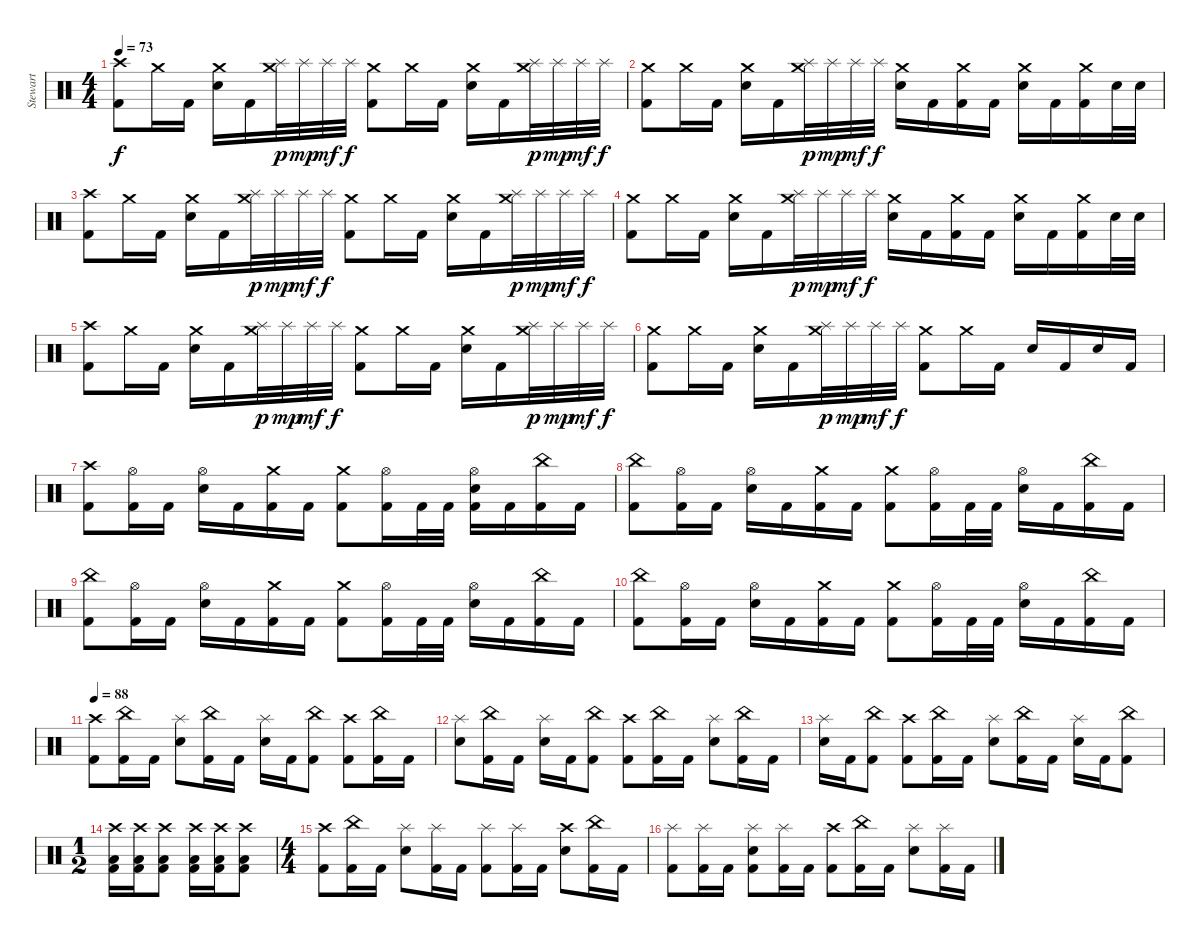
\track ("Stewart" "Stewart") {instrument percussion}
\staff {score}
\articulation defaults
\ts (4 4)
\tempo 73
\clef neutral
\ks c
("Crash high (hit)" "Kick (hit) 2").8{dy f} "Crash medium (hit)".16 "Kick (hit) 2".16 ("Crash medium (hit)" "Electric Snare (hit)").16 "Kick (hit) 2".16 ("Crash medium (hit)" "Splash (hit)").32{dy p} "Splash (hit)".32{dy mp} "Splash (hit)".32{dy mf} "Splash (hit)".32{dy f} ("Crash medium (hit)" "Kick (hit) 2").8 "Crash medium (hit)".16 "Kick (hit) 2".16 ("Crash medium (hit)" "Electric Snare (hit)").16 "Kick (hit) 2".16 ("Crash medium (hit)" "Splash (hit)").32{dy p} "Splash (hit)".32{dy mp} "Splash (hit)".32{dy mf} "Splash (hit)".32{dy f} |
("Crash medium (hit)" "Kick (hit) 2").8 "Crash medium (hit)".16 "Kick (hit) 2".16 ("Crash medium (hit)" "Electric Snare (hit)").16 "Kick (hit) 2".16 ("Crash medium (hit)" "Splash (hit)").32{dy p} "Splash (hit)".32{dy mp} "Splash (hit)".32{dy mf} "Splash (hit)".32{dy f} ("Crash medium (hit)" "Electric Snare (hit)").16 "Kick (hit) 2".16 ("Crash medium (hit)" "Kick (hit) 2").16 "Kick (hit) 2".16 ("Crash medium (hit)" "Electric Snare (hit)").16 "Kick (hit) 2".16 ("Crash medium (hit)" "Kick (hit) 2").16 "Electric Snare (hit)".32 "Electric Snare (hit)".32 |
("Crash high (hit)" "Kick (hit) 2").8 "Crash medium (hit)".16 "Kick (hit) 2".16 ("Crash medium (hit)" "Electric Snare (hit)").16 "Kick (hit) 2".16 ("Crash medium (hit)" "Splash (hit)").32{dy p} "Splash (hit)".32{dy mp} "Splash (hit)".32{dy mf} "Splash (hit)".32{dy f} ("Crash medium (hit)" "Kick (hit) 2").8 "Crash medium (hit)".16 "Kick (hit) 2".16 ("Crash medium (hit)" "Electric Snare (hit)").16 "Kick (hit) 2".16 ("Crash medium (hit)" "Splash (hit)").32{dy p} "Splash (hit)".32{dy mp} "Splash (hit)".32{dy mf} "Splash (hit)".32{dy f} |
("Crash medium (hit)" "Kick (hit) 2").8 "Crash medium (hit)".16 "Kick (hit) 2".16 ("Crash medium (hit)" "Electric Snare (hit)").16 "Kick (hit) 2".16 ("Crash medium (hit)" "Splash (hit)").32{dy p} "Splash (hit)".32{dy mp} "Splash (hit)".32{dy mf} "Splash (hit)".32{dy f} ("Crash medium (hit)" "Electric Snare (hit)").16 "Kick (hit) 2".16 ("Crash medium (hit)" "Kick (hit) 2").16 "Kick (hit) 2".16 ("Crash medium (hit)" "Electric Snare (hit)").16 "Kick (hit) 2".16 ("Crash medium (hit)" "Kick (hit) 2").16 "Electric Snare (hit)".32 "Electric Snare (hit)".32 |
("Crash high (hit)" "Kick (hit) 2").8 "Crash medium (hit)".16 "Kick (hit) 2".16 ("Crash medium (hit)" "Electric Snare (hit)").16 "Kick (hit) 2".16 ("Crash medium (hit)" "Splash (hit)").32{dy p} "Splash (hit)".32{dy mp} "Splash (hit)".32{dy mf} "Splash (hit)".32{dy f} ("Crash medium (hit)" "Kick (hit) 2").8 "Crash medium (hit)".16 "Kick (hit) 2".16 ("Crash medium (hit)" "Electric Snare (hit)").16 "Kick (hit) 2".16 ("Crash medium (hit)" "Splash (hit)").32{dy p} "Splash (hit)".32{dy mp} "Splash (hit)".32{dy mf} "Splash (hit)".32{dy f} |
("Crash medium (hit)" "Kick (hit) 2").8 "Crash medium (hit)".16 "Kick (hit) 2".16 ("Crash medium (hit)" "Electric Snare (hit)").16 "Kick (hit) 2".16 ("Crash medium (hit)" "Splash (hit)").32{dy p} "Splash (hit)".32{dy mp} "Splash (hit)".32{dy mf} "Splash (hit)".32{dy f} ("Crash medium (hit)" "Kick (hit) 2").8 "Crash medium (hit)".16 "Kick (hit) 2".16 "Electric Snare (hit)".16 "Kick (hit) 2".16 "Electric Snare (hit)".16 "Kick (hit) 2".16 |
("Crash high (hit)" "Kick (hit) 2").8 ("Hi-Hat (open)" "Kick (hit) 2").16 "Kick (hit) 2".16 ("Hi-Hat (open)" "Electric Snare (hit)").16 "Kick (hit) 2".16 ("Crash medium (hit)" "Kick (hit) 2").16 "Kick (hit) 2".16 ("Crash medium (hit)" "Kick (hit) 2").8 ("Hi-Hat (open)" "Kick (hit) 2").16 "Kick (hit) 2".32 "Kick (hit) 2".32 ("Hi-Hat (open)" "Electric Snare (hit)" "Kick (hit) 2").16 "Kick (hit) 2".16 ("China (hit)" "Kick (hit) 2").16 "Kick (hit) 2".16 |
("China (hit)" "Kick (hit) 2").8 ("Hi-Hat (open)" "Kick (hit) 2").16 "Kick (hit) 2".16 ("Hi-Hat (open)" "Electric Snare (hit)").16 "Kick (hit) 2".16 ("Crash medium (hit)" "Kick (hit) 2").16 "Kick (hit) 2".16 ("Crash medium (hit)" "Kick (hit) 2").8 ("Hi-Hat (open)" "Kick (hit) 2").16 "Kick (hit) 2".32 "Kick (hit) 2".32 ("Hi-Hat (open)" "Electric Snare (hit)").16 "Kick (hit) 2".16 ("China (hit)" "Kick (hit) 2").16 "Kick (hit) 2".16 |
("China (hit)" "Kick (hit) 2").8 ("Hi-Hat (open)" "Kick (hit) 2").16 "Kick (hit) 2".16 ("Hi-Hat (open)" "Electric Snare (hit)").16 "Kick (hit) 2".16 ("Crash medium (hit)" "Kick (hit) 2").16 "Kick (hit) 2".16 ("Crash medium (hit)" "Kick (hit) 2").8 ("Hi-Hat (open)" "Kick (hit) 2").16 "Kick (hit) 2".32 "Kick (hit) 2".32 ("Hi-Hat (open)" "Electric Snare (hit)").16 "Kick (hit) 2".16 ("China (hit)" "Kick (hit) 2").16 "Kick (hit) 2".16 |
("China (hit)" "Kick (hit) 2").8 ("Hi-Hat (open)" "Kick (hit) 2").16 "Kick (hit) 2".16 ("Hi-Hat (open)" "Electric Snare (hit)").16 "Kick (hit) 2".16 ("Crash medium (hit)" "Kick (hit) 2").16 "Kick (hit) 2".16 ("Crash medium (hit)" "Kick (hit) 2").8 ("Hi-Hat (open)" "Kick (hit) 2").16 "Kick (hit) 2".32 "Kick (hit) 2".32 ("Hi-Hat (open)" "Electric Snare (hit)").16 "Kick (hit) 2".16 ("China (hit)" "Kick (hit) 2").16 "Kick (hit) 2".16 |
\tempo 88
("Crash high (hit)" "Kick (hit) 2").8 ("China (hit)" "Kick (hit) 2").16 "Kick (hit) 2".16 ("Splash (hit)" "Electric Snare (hit)").8 ("China (hit)" "Kick (hit) 2").16 "Kick (hit) 2".16 ("Splash (hit)" "Electric Snare (hit)").16 "Kick (hit) 2".16 ("China (hit)" "Kick (hit) 2").8 ("Crash high (hit)" "Kick (hit) 2").8 ("China (hit)" "Kick (hit) 2").16 "Kick (hit) 2".16 |
("Splash (hit)" "Electric Snare (hit)").8 ("China (hit)" "Kick (hit) 2").16 "Kick (hit) 2".16 ("Splash (hit)" "Electric Snare (hit)").16 "Kick (hit) 2".16 ("China (hit)" "Kick (hit) 2").8 ("Crash high (hit)" "Kick (hit) 2").8 ("China (hit)" "Kick (hit) 2").16 "Kick (hit) 2".16 ("Splash (hit)" "Electric Snare (hit)").8 ("China (hit)" "Kick (hit) 2").16 "Kick (hit) 2".16 |
("Splash (hit)" "Electric Snare (hit)").16 "Kick (hit) 2".16 ("China (hit)" "Kick (hit) 2").8 ("Crash high (hit)" "Kick (hit) 2").8 ("China (hit)" "Kick (hit) 2").16 "Kick (hit) 2".16 ("Splash (hit)" "Electric Snare (hit)").8 ("China (hit)" "Kick (hit) 2").16 "Kick (hit) 2".16 ("Splash (hit)" "Electric Snare (hit)").16 "Kick (hit) 2".16 ("China (hit)" "Kick (hit) 2").8 |
\ts (1 2)
("Low Tom (hit)" "Crash high (hit)" "Kick (hit) 2").16 ("Low Tom (hit)" "Crash high (hit)" "Kick (hit) 2").16 ("Low Tom (hit)" "Crash high (hit)" "Kick (hit) 2").8 ("Low Tom (hit)" "Crash high (hit)" "Kick (hit) 2").16 ("Low Tom (hit)" "Crash high (hit)" "Kick (hit) 2").16 ("Low Tom (hit)" "Crash high (hit)" "Kick (hit) 2").8 |
\ts (4 4)
("Crash high (hit)" "Kick (hit) 2").8 ("China (hit)" "Kick (hit) 2").16 "Kick (hit) 2".16 ("Splash (hit)" "Electric Snare (hit)").8 ("Splash (hit)" "Kick (hit) 2").16 "Kick (hit) 2".16 ("Splash (hit)" "Kick (hit) 2").8 ("Splash (hit)" "Kick (hit) 2").16 "Kick (hit) 2".16 ("Crash high (hit)" "Electric Snare (hit)").8 ("China (hit)" "Kick (hit) 2").16 "Kick (hit) 2".16 |
("Splash (hit)" "Kick (hit) 2").8 ("Splash (hit)" "Kick (hit) 2").16 "Kick (hit) 2".16 ("Splash (hit)" "Electric Snare (hit)" "Kick (hit) 2").8 ("Splash (hit)" "Kick (hit) 2").16 "Kick (hit) 2".16 ("Crash high (hit)" "Kick (hit) 2").8 ("China (hit)" "Kick (hit) 2").16 "Kick (hit) 2".16 ("Splash (hit)" "Electric Snare (hit)").8 ("Splash (hit)" "Kick (hit) 2").16 "Kick (hit) 2".16
